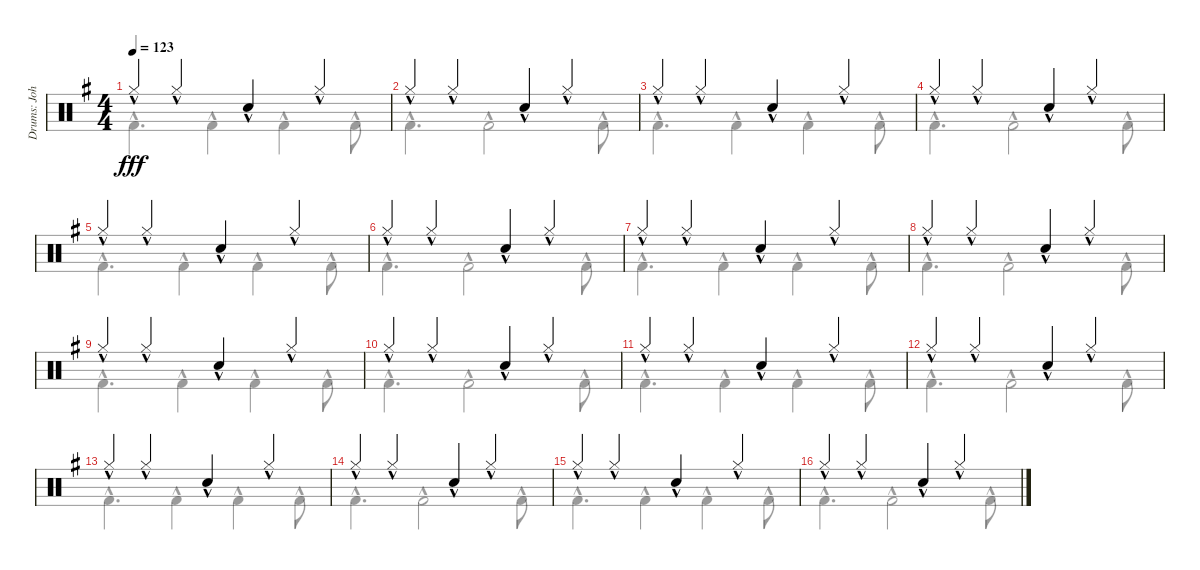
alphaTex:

\track ("Drums: John" "Drums: Joh") {instrument percussion}
\staff {score}
\articulation defaults
\voice
\ts (4 4)
\tempo 123
\clef neutral
\ks g "Hi-Hat (closed)"{hac}.4{dy fff} "Hi-Hat (closed)"{hac}.4 "Electric Snare (hit)"{hac}.4 "Hi-Hat (closed)"{hac}.4
|
"Hi-Hat (closed)"{hac}.4 "Hi-Hat (closed)"{hac}.4{beam merge} "Electric Snare (hit)"{hac}.4 "Hi-Hat (closed)"{hac}.4 |
"Hi-Hat (closed)"{hac}.4 "Hi-Hat (closed)"{hac}.4 "Electric Snare (hit)"{hac}.4 "Hi-Hat (closed)"{hac}.4 |
"Hi-Hat (closed)"{hac}.4 "Hi-Hat (closed)"{hac}.4{beam merge} "Electric Snare (hit)"{hac}.4 "Hi-Hat (closed)"{hac}.4 |
"Hi-Hat (closed)"{hac}.4 "Hi-Hat (closed)"{hac}.4 "Electric Snare (hit)"{hac}.4 "Hi-Hat (closed)"{hac}.4 |
"Hi-Hat (closed)"{hac}.4 "Hi-Hat (closed)"{hac}.4{beam merge} "Electric Snare (hit)"{hac}.4 "Hi-Hat (closed)"{hac}.4 |
"Hi-Hat (closed)"{hac}.4 "Hi-Hat (closed)"{hac}.4 "Electric Snare (hit)"{hac}.4 "Hi-Hat (closed)"{hac}.4 |
"Hi-Hat (closed)"{hac}.4 "Hi-Hat (closed)"{hac}.4{beam merge} "Electric Snare (hit)"{hac}.4 "Hi-Hat (closed)"{hac}.4 |
"Hi-Hat (closed)"{hac}.4 "Hi-Hat (closed)"{hac}.4 "Electric Snare (hit)"{hac}.4 "Hi-Hat (closed)"{hac}.4 |
"Hi-Hat (closed)"{hac}.4 "Hi-Hat (closed)"{hac}.4{beam merge} "Electric Snare (hit)"{hac}.4 "Hi-Hat (closed)"{hac}.4 |
"Hi-Hat (closed)"{hac}.4 "Hi-Hat (closed)"{hac}.4 "Electric Snare (hit)"{hac}.4 "Hi-Hat (closed)"{hac}.4 |
"Hi-Hat (closed)"{hac}.4 "Hi-Hat (closed)"{hac}.4{beam merge} "Electric Snare (hit)"{hac}.4 "Hi-Hat (closed)"{hac}.4 |
"Hi-Hat (closed)"{hac}.4 "Hi-Hat (closed)"{hac}.4 "Electric Snare (hit)"{hac}.4 "Hi-Hat (closed)"{hac}.4 |
"Hi-Hat (closed)"{hac}.4 "Hi-Hat (closed)"{hac}.4{beam merge} "Electric Snare (hit)"{hac}.4 "Hi-Hat (closed)"{hac}.4 |
"Hi-Hat (closed)"{hac}.4 "Hi-Hat (closed)"{hac}.4 "Electric Snare (hit)"{hac}.4 "Hi-Hat (closed)"{hac}.4 |
"Hi-Hat (closed)"{hac}.4 "Hi-Hat (closed)"{hac}.4{beam merge} "Electric Snare (hit)"{hac}.4 "Hi-Hat (closed)"{hac}.4
\voice
\clef neutral
\ottava regular
\simile none
\ks g "Kick (hit) 2"{hac}.4{d dy fff} "Kick (hit) 2"{hac}.4 "Kick (hit) 2"{hac}.4 "Kick (hit) 2"{hac}.8
|
"Kick (hit) 2"{hac}.4{d} "Kick (hit) 2"{hac}.2 "Kick (hit) 2"{hac}.8 |
"Kick (hit) 2"{hac}.4{d} "Kick (hit) 2"{hac}.4 "Kick (hit) 2"{hac}.4 "Kick (hit) 2"{hac}.8 |
"Kick (hit) 2"{hac}.4{d} "Kick (hit) 2"{hac}.2 "Kick (hit) 2"{hac}.8 |
"Kick (hit) 2"{hac}.4{d} "Kick (hit) 2"{hac}.4 "Kick (hit) 2"{hac}.4 "Kick (hit) 2"{hac}.8 |
"Kick (hit) 2"{hac}.4{d} "Kick (hit) 2"{hac}.2 "Kick (hit) 2"{hac}.8 |
"Kick (hit) 2"{hac}.4{d} "Kick (hit) 2"{hac}.4 "Kick (hit) 2"{hac}.4 "Kick (hit) 2"{hac}.8 |
"Kick (hit) 2"{hac}.4{d} "Kick (hit) 2"{hac}.2 "Kick (hit) 2"{hac}.8 |
"Kick (hit) 2"{hac}.4{d} "Kick (hit) 2"{hac}.4 "Kick (hit) 2"{hac}.4 "Kick (hit) 2"{hac}.8 |
"Kick (hit) 2"{hac}.4{d} "Kick (hit) 2"{hac}.2 "Kick (hit) 2"{hac}.8 |
"Kick (hit) 2"{hac}.4{d} "Kick (hit) 2"{hac}.4 "Kick (hit) 2"{hac}.4 "Kick (hit) 2"{hac}.8 |
"Kick (hit) 2"{hac}.4{d} "Kick (hit) 2"{hac}.2 "Kick (hit) 2"{hac}.8 |
"Kick (hit) 2"{hac}.4{d} "Kick (hit) 2"{hac}.4 "Kick (hit) 2"{hac}.4 "Kick (hit) 2"{hac}.8 |
"Kick (hit) 2"{hac}.4{d} "Kick (hit) 2"{hac}.2 "Kick (hit) 2"{hac}.8 |
"Kick (hit) 2"{hac}.4{d} "Kick (hit) 2"{hac}.4 "Kick (hit) 2"{hac}.4 "Kick (hit) 2"{hac}.8 |
"Kick (hit) 2"{hac}.4{d} "Kick (hit) 2"{hac}.2 "Kick (hit) 2"{hac}.8
